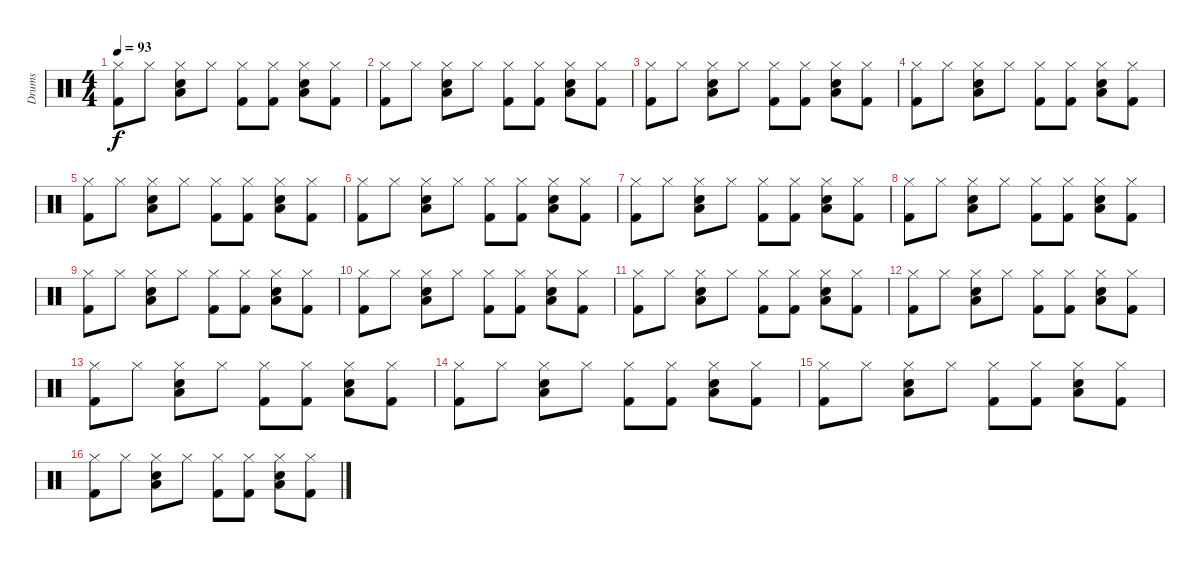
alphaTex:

\track ("Drums" "Drums") {instrument percussion}
\staff {score}
\articulation defaults
\ts (4 4)
\tempo 93
\clef neutral
\ks c
("Hi-Hat (closed)" "Kick (hit) 2").8{dy f} "Hi-Hat (closed)".8 ("Hi-Hat (closed)" "Snare (hit) 2" "Low Tom (hit)").8 "Hi-Hat (closed)".8 ("Hi-Hat (closed)" "Kick (hit) 2").8 ("Hi-Hat (closed)" "Kick (hit) 2").8 ("Hi-Hat (closed)" "Snare (hit) 2" "Low Tom (hit)").8 ("Hi-Hat (closed)" "Kick (hit) 2").8 |
("Hi-Hat (closed)" "Kick (hit) 2").8 "Hi-Hat (closed)".8 ("Hi-Hat (closed)" "Snare (hit) 2" "Low Tom (hit)").8 "Hi-Hat (closed)".8 ("Hi-Hat (closed)" "Kick (hit) 2").8 ("Hi-Hat (closed)" "Kick (hit) 2").8 ("Hi-Hat (closed)" "Snare (hit) 2" "Low Tom (hit)").8 ("Hi-Hat (closed)" "Kick (hit) 2").8 |
("Hi-Hat (closed)" "Kick (hit) 2").8 "Hi-Hat (closed)".8 ("Hi-Hat (closed)" "Snare (hit) 2" "Low Tom (hit)").8 "Hi-Hat (closed)".8 ("Hi-Hat (closed)" "Kick (hit) 2").8 ("Hi-Hat (closed)" "Kick (hit) 2").8 ("Hi-Hat (closed)" "Snare (hit) 2" "Low Tom (hit)").8 ("Hi-Hat (closed)" "Kick (hit) 2").8 |
("Hi-Hat (closed)" "Kick (hit) 2").8 "Hi-Hat (closed)".8 ("Hi-Hat (closed)" "Snare (hit) 2" "Low Tom (hit)").8 "Hi-Hat (closed)".8 ("Hi-Hat (closed)" "Kick (hit) 2").8 ("Hi-Hat (closed)" "Kick (hit) 2").8 ("Hi-Hat (closed)" "Snare (hit) 2" "Low Tom (hit)").8 ("Hi-Hat (closed)" "Kick (hit) 2").8 |
("Hi-Hat (closed)" "Kick (hit) 2").8 "Hi-Hat (closed)".8 ("Hi-Hat (closed)" "Snare (hit) 2" "Low Tom (hit)").8 "Hi-Hat (closed)".8 ("Hi-Hat (closed)" "Kick (hit) 2").8 ("Hi-Hat (closed)" "Kick (hit) 2").8 ("Hi-Hat (closed)" "Snare (hit) 2" "Low Tom (hit)").8 ("Hi-Hat (closed)" "Kick (hit) 2").8 |
("Hi-Hat (closed)" "Kick (hit) 2").8 "Hi-Hat (closed)".8 ("Hi-Hat (closed)" "Snare (hit) 2" "Low Tom (hit)").8 "Hi-Hat (closed)".8 ("Hi-Hat (closed)" "Kick (hit) 2").8 ("Hi-Hat (closed)" "Kick (hit) 2").8 ("Hi-Hat (closed)" "Snare (hit) 2" "Low Tom (hit)").8 ("Hi-Hat (closed)" "Kick (hit) 2").8 |
("Hi-Hat (closed)" "Kick (hit) 2").8 "Hi-Hat (closed)".8 ("Hi-Hat (closed)" "Snare (hit) 2" "Low Tom (hit)").8 "Hi-Hat (closed)".8 ("Hi-Hat (closed)" "Kick (hit) 2").8 ("Hi-Hat (closed)" "Kick (hit) 2").8 ("Hi-Hat (closed)" "Snare (hit) 2" "Low Tom (hit)").8 ("Hi-Hat (closed)" "Kick (hit) 2").8 |
("Hi-Hat (closed)" "Kick (hit) 2").8 "Hi-Hat (closed)".8 ("Hi-Hat (closed)" "Snare (hit) 2" "Low Tom (hit)").8 "Hi-Hat (closed)".8 ("Hi-Hat (closed)" "Kick (hit) 2").8 ("Hi-Hat (closed)" "Kick (hit) 2").8 ("Hi-Hat (closed)" "Snare (hit) 2" "Low Tom (hit)").8 ("Hi-Hat (closed)" "Kick (hit) 2").8 |
("Hi-Hat (closed)" "Kick (hit) 2").8 "Hi-Hat (closed)".8 ("Hi-Hat (closed)" "Snare (hit) 2" "Low Tom (hit)").8 "Hi-Hat (closed)".8 ("Hi-Hat (closed)" "Kick (hit) 2").8 ("Hi-Hat (closed)" "Kick (hit) 2").8 ("Hi-Hat (closed)" "Snare (hit) 2" "Low Tom (hit)").8 ("Hi-Hat (closed)" "Kick (hit) 2").8 |
("Hi-Hat (closed)" "Kick (hit) 2").8 "Hi-Hat (closed)".8 ("Hi-Hat (closed)" "Snare (hit) 2" "Low Tom (hit)").8 "Hi-Hat (closed)".8 ("Hi-Hat (closed)" "Kick (hit) 2").8 ("Hi-Hat (closed)" "Kick (hit) 2").8 ("Hi-Hat (closed)" "Snare (hit) 2" "Low Tom (hit)").8 ("Hi-Hat (closed)" "Kick (hit) 2").8 |
("Hi-Hat (closed)" "Kick (hit) 2").8 "Hi-Hat (closed)".8 ("Hi-Hat (closed)" "Snare (hit) 2" "Low Tom (hit)").8 "Hi-Hat (closed)".8 ("Hi-Hat (closed)" "Kick (hit) 2").8 ("Hi-Hat (closed)" "Kick (hit) 2").8 ("Hi-Hat (closed)" "Snare (hit) 2" "Low Tom (hit)").8 ("Hi-Hat (closed)" "Kick (hit) 2").8 |
("Hi-Hat (closed)" "Kick (hit) 2").8 "Hi-Hat (closed)".8 ("Hi-Hat (closed)" "Snare (hit) 2" "Low Tom (hit)").8 "Hi-Hat (closed)".8 ("Hi-Hat (closed)" "Kick (hit) 2").8 ("Hi-Hat (closed)" "Kick (hit) 2").8 ("Hi-Hat (closed)" "Snare (hit) 2" "Low Tom (hit)").8 ("Hi-Hat (closed)" "Kick (hit) 2").8 |
("Hi-Hat (closed)" "Kick (hit) 2").8 "Hi-Hat (closed)".8 ("Hi-Hat (closed)" "Snare (hit) 2" "Low Tom (hit)").8 "Hi-Hat (closed)".8 ("Hi-Hat (closed)" "Kick (hit) 2").8 ("Hi-Hat (closed)" "Kick (hit) 2").8 ("Hi-Hat (closed)" "Snare (hit) 2" "Low Tom (hit)").8 ("Hi-Hat (closed)" "Kick (hit) 2").8 |
("Hi-Hat (closed)" "Kick (hit) 2").8 "Hi-Hat (closed)".8 ("Hi-Hat (closed)" "Snare (hit) 2" "Low Tom (hit)").8 "Hi-Hat (closed)".8 ("Hi-Hat (closed)" "Kick (hit) 2").8 ("Hi-Hat (closed)" "Kick (hit) 2").8 ("Hi-Hat (closed)" "Snare (hit) 2" "Low Tom (hit)").8 ("Hi-Hat (closed)" "Kick (hit) 2").8 |
("Hi-Hat (closed)" "Kick (hit) 2").8 "Hi-Hat (closed)".8 ("Hi-Hat (closed)" "Snare (hit) 2" "Low Tom (hit)").8 "Hi-Hat (closed)".8 ("Hi-Hat (closed)" "Kick (hit) 2").8 ("Hi-Hat (closed)" "Kick (hit) 2").8 ("Hi-Hat (closed)" "Snare (hit) 2" "Low Tom (hit)").8 ("Hi-Hat (closed)" "Kick (hit) 2").8 |
("Hi-Hat (closed)" "Kick (hit) 2").8 "Hi-Hat (closed)".8 ("Hi-Hat (closed)" "Snare (hit) 2" "Low Tom (hit)").8 "Hi-Hat (closed)".8 ("Hi-Hat (closed)" "Kick (hit) 2").8 ("Hi-Hat (closed)" "Kick (hit) 2").8 ("Hi-Hat (closed)" "Snare (hit) 2" "Low Tom (hit)").8 ("Hi-Hat (closed)" "Kick (hit) 2").8
